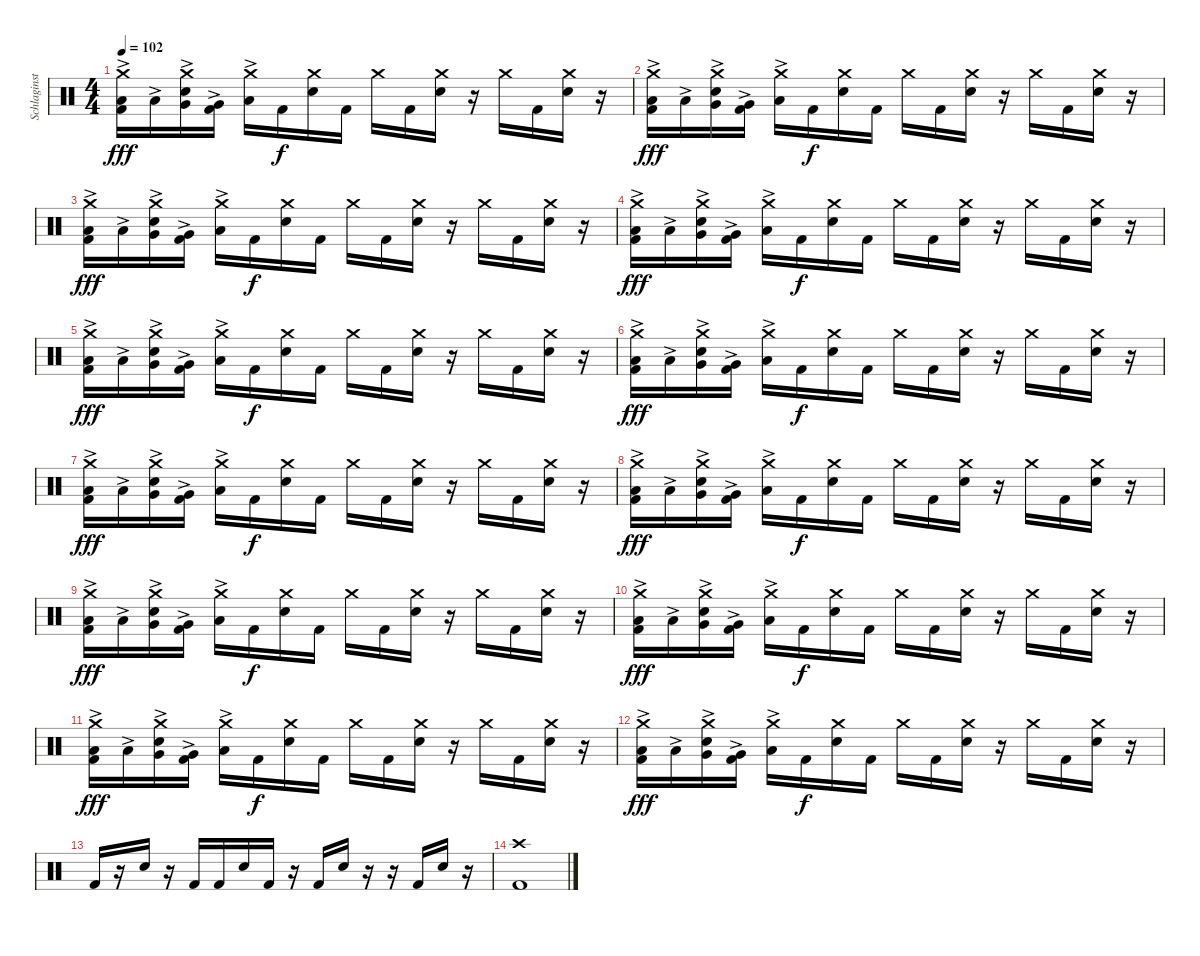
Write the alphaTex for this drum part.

\track ("Schlaginstrumente - Auswahl" "Schlaginst") {instrument percussion}
\staff {score}
\articulation defaults
\ts (4 4)
\tempo 102
\clef neutral
\ks c
("Crash medium (hit)" "Low Tom (hit)"{ac} "Kick (hit) 2").16{dy fff} "Low Tom (hit)"{ac}.16 ("Crash medium (hit)" "Very Low Tom (hit)"{ac} "Snare (hit) 2").16 ("Very Low Tom (hit)"{ac} "Kick (hit) 2").16 ("Crash medium (hit)" "Low Floor Tom (hit)"{ac}).16 "Kick (hit) 2".16{dy f} ("Crash medium (hit)" "Snare (hit) 2").16 "Kick (hit) 2".16 "Crash medium (hit)".16 "Kick (hit) 2".16 ("Crash medium (hit)" "Snare (hit) 2").16 r.16 "Crash medium (hit)".16 "Kick (hit) 2".16 ("Crash medium (hit)" "Snare (hit) 2").16 r.16 |
("Crash medium (hit)" "Low Tom (hit)"{ac} "Kick (hit) 2").16{dy fff} "Low Tom (hit)"{ac}.16 ("Crash medium (hit)" "Very Low Tom (hit)"{ac} "Snare (hit) 2").16 ("Very Low Tom (hit)"{ac} "Kick (hit) 2").16 ("Crash medium (hit)" "Low Floor Tom (hit)"{ac}).16 "Kick (hit) 2".16{dy f} ("Crash medium (hit)" "Snare (hit) 2").16 "Kick (hit) 2".16 "Crash medium (hit)".16 "Kick (hit) 2".16 ("Crash medium (hit)" "Snare (hit) 2").16 r.16 "Crash medium (hit)".16 "Kick (hit) 2".16 ("Crash medium (hit)" "Snare (hit) 2").16 r.16 |
("Crash medium (hit)" "Low Tom (hit)"{ac} "Kick (hit) 2").16{dy fff} "Low Tom (hit)"{ac}.16 ("Crash medium (hit)" "Very Low Tom (hit)"{ac} "Snare (hit) 2").16 ("Very Low Tom (hit)"{ac} "Kick (hit) 2").16 ("Crash medium (hit)" "Low Floor Tom (hit)"{ac}).16 "Kick (hit) 2".16{dy f} ("Crash medium (hit)" "Snare (hit) 2").16 "Kick (hit) 2".16 "Crash medium (hit)".16 "Kick (hit) 2".16 ("Crash medium (hit)" "Snare (hit) 2").16 r.16 "Crash medium (hit)".16 "Kick (hit) 2".16 ("Crash medium (hit)" "Snare (hit) 2").16 r.16 |
("Crash medium (hit)" "Low Tom (hit)"{ac} "Kick (hit) 2").16{dy fff} "Low Tom (hit)"{ac}.16 ("Crash medium (hit)" "Very Low Tom (hit)"{ac} "Snare (hit) 2").16 ("Very Low Tom (hit)"{ac} "Kick (hit) 2").16 ("Crash medium (hit)" "Low Floor Tom (hit)"{ac}).16 "Kick (hit) 2".16{dy f} ("Crash medium (hit)" "Snare (hit) 2").16 "Kick (hit) 2".16 "Crash medium (hit)".16 "Kick (hit) 2".16 ("Crash medium (hit)" "Snare (hit) 2").16 r.16 "Crash medium (hit)".16 "Kick (hit) 2".16 ("Crash medium (hit)" "Snare (hit) 2").16 r.16 |
("Crash medium (hit)" "Low Tom (hit)"{ac} "Kick (hit) 2").16{dy fff} "Low Tom (hit)"{ac}.16 ("Crash medium (hit)" "Very Low Tom (hit)"{ac} "Snare (hit) 2").16 ("Very Low Tom (hit)"{ac} "Kick (hit) 2").16 ("Crash medium (hit)" "Low Floor Tom (hit)"{ac}).16 "Kick (hit) 2".16{dy f} ("Crash medium (hit)" "Snare (hit) 2").16 "Kick (hit) 2".16 "Crash medium (hit)".16 "Kick (hit) 2".16 ("Crash medium (hit)" "Snare (hit) 2").16 r.16 "Crash medium (hit)".16 "Kick (hit) 2".16 ("Crash medium (hit)" "Snare (hit) 2").16 r.16 |
("Crash medium (hit)" "Low Tom (hit)"{ac} "Kick (hit) 2").16{dy fff} "Low Tom (hit)"{ac}.16 ("Crash medium (hit)" "Very Low Tom (hit)"{ac} "Snare (hit) 2").16 ("Very Low Tom (hit)"{ac} "Kick (hit) 2").16 ("Crash medium (hit)" "Low Floor Tom (hit)"{ac}).16 "Kick (hit) 2".16{dy f} ("Crash medium (hit)" "Snare (hit) 2").16 "Kick (hit) 2".16 "Crash medium (hit)".16 "Kick (hit) 2".16 ("Crash medium (hit)" "Snare (hit) 2").16 r.16 "Crash medium (hit)".16 "Kick (hit) 2".16 ("Crash medium (hit)" "Snare (hit) 2").16 r.16 |
("Crash medium (hit)" "Low Tom (hit)"{ac} "Kick (hit) 2").16{dy fff} "Low Tom (hit)"{ac}.16 ("Crash medium (hit)" "Very Low Tom (hit)"{ac} "Snare (hit) 2").16 ("Very Low Tom (hit)"{ac} "Kick (hit) 2").16 ("Crash medium (hit)" "Low Floor Tom (hit)"{ac}).16 "Kick (hit) 2".16{dy f} ("Crash medium (hit)" "Snare (hit) 2").16 "Kick (hit) 2".16 "Crash medium (hit)".16 "Kick (hit) 2".16 ("Crash medium (hit)" "Snare (hit) 2").16 r.16 "Crash medium (hit)".16 "Kick (hit) 2".16 ("Crash medium (hit)" "Snare (hit) 2").16 r.16 |
("Crash medium (hit)" "Low Tom (hit)"{ac} "Kick (hit) 2").16{dy fff} "Low Tom (hit)"{ac}.16 ("Crash medium (hit)" "Very Low Tom (hit)"{ac} "Snare (hit) 2").16 ("Very Low Tom (hit)"{ac} "Kick (hit) 2").16 ("Crash medium (hit)" "Low Floor Tom (hit)"{ac}).16 "Kick (hit) 2".16{dy f} ("Crash medium (hit)" "Snare (hit) 2").16 "Kick (hit) 2".16 "Crash medium (hit)".16 "Kick (hit) 2".16 ("Crash medium (hit)" "Snare (hit) 2").16 r.16 "Crash medium (hit)".16 "Kick (hit) 2".16 ("Crash medium (hit)" "Snare (hit) 2").16 r.16 |
("Crash medium (hit)" "Low Tom (hit)"{ac} "Kick (hit) 2").16{dy fff} "Low Tom (hit)"{ac}.16 ("Crash medium (hit)" "Very Low Tom (hit)"{ac} "Snare (hit) 2").16 ("Very Low Tom (hit)"{ac} "Kick (hit) 2").16 ("Crash medium (hit)" "Low Floor Tom (hit)"{ac}).16 "Kick (hit) 2".16{dy f} ("Crash medium (hit)" "Snare (hit) 2").16 "Kick (hit) 2".16 "Crash medium (hit)".16 "Kick (hit) 2".16 ("Crash medium (hit)" "Snare (hit) 2").16 r.16 "Crash medium (hit)".16 "Kick (hit) 2".16 ("Crash medium (hit)" "Snare (hit) 2").16 r.16 |
("Crash medium (hit)" "Low Tom (hit)"{ac} "Kick (hit) 2").16{dy fff} "Low Tom (hit)"{ac}.16 ("Crash medium (hit)" "Very Low Tom (hit)"{ac} "Snare (hit) 2").16 ("Very Low Tom (hit)"{ac} "Kick (hit) 2").16 ("Crash medium (hit)" "Low Floor Tom (hit)"{ac}).16 "Kick (hit) 2".16{dy f} ("Crash medium (hit)" "Snare (hit) 2").16 "Kick (hit) 2".16 "Crash medium (hit)".16 "Kick (hit) 2".16 ("Crash medium (hit)" "Snare (hit) 2").16 r.16 "Crash medium (hit)".16 "Kick (hit) 2".16 ("Crash medium (hit)" "Snare (hit) 2").16 r.16 |
("Crash medium (hit)" "Low Tom (hit)"{ac} "Kick (hit) 2").16{dy fff} "Low Tom (hit)"{ac}.16 ("Crash medium (hit)" "Very Low Tom (hit)"{ac} "Snare (hit) 2").16 ("Very Low Tom (hit)"{ac} "Kick (hit) 2").16 ("Crash medium (hit)" "Low Floor Tom (hit)"{ac}).16 "Kick (hit) 2".16{dy f} ("Crash medium (hit)" "Snare (hit) 2").16 "Kick (hit) 2".16 "Crash medium (hit)".16 "Kick (hit) 2".16 ("Crash medium (hit)" "Snare (hit) 2").16 r.16 "Crash medium (hit)".16 "Kick (hit) 2".16 ("Crash medium (hit)" "Snare (hit) 2").16 r.16 |
("Crash medium (hit)" "Low Tom (hit)"{ac} "Kick (hit) 2").16{dy fff} "Low Tom (hit)"{ac}.16 ("Crash medium (hit)" "Very Low Tom (hit)"{ac} "Snare (hit) 2").16 ("Very Low Tom (hit)"{ac} "Kick (hit) 2").16 ("Crash medium (hit)" "Low Floor Tom (hit)"{ac}).16 "Kick (hit) 2".16{dy f} ("Crash medium (hit)" "Snare (hit) 2").16 "Kick (hit) 2".16 "Crash medium (hit)".16 "Kick (hit) 2".16 ("Crash medium (hit)" "Snare (hit) 2").16 r.16 "Crash medium (hit)".16 "Kick (hit) 2".16 ("Crash medium (hit)" "Snare (hit) 2").16 r.16 |
"Kick (hit) 2".16 r.16 "Snare (hit) 2".16 r.16 "Kick (hit) 2".16 "Kick (hit) 2".16 "Snare (hit) 2".16 "Kick (hit) 2".16 r.16 "Kick (hit) 2".16 "Snare (hit) 2".16 r.16 r.16 "Kick (hit) 2".16 "Snare (hit) 2".16 r.16 |
("Crash high (hit)" "Kick (hit) 2").1
